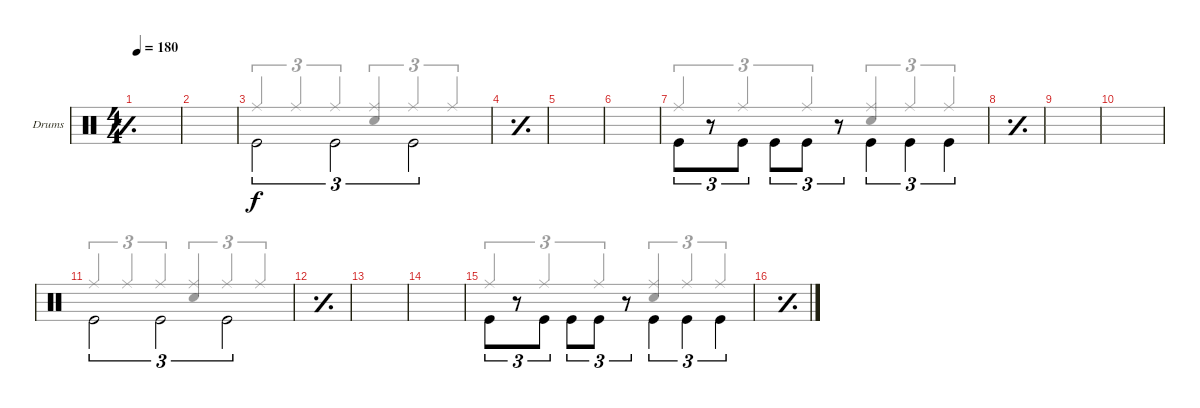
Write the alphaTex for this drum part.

\defaultSystemsLayout 4
\bracketExtendMode groupsimilarinstruments
\multiBarRest
\firstSystemTrackNameOrientation horizontal
\otherSystemsTrackNameOrientation horizontal
\track ("Drumkit" "Drums") {instrument percussion}
\staff {score}
\articulation defaults
\voice
\ts (4 4)
\tempo 180
\clef neutral
\simile simple
\ks c
|
|
\simile none "Kick (hit)".2{tu (3 2) beam invert} "Kick (hit)".2{tu (3 2) beam invert} "Kick (hit)".2{tu (3 2) beam invert}
|
\simile simple
|
|
|
\simile none "Kick (hit)".8{tu (3 2)}
r.8{tu (3 2) beam invert} "Kick (hit)".8{tu (3 2) beam invert} "Kick (hit)".8{tu (3 2)} "Kick (hit)".8{tu (3 2) beam invert} r.8{tu (3 2) beam invert} "Kick (hit)".4{tu (3 2) beam invert} "Kick (hit)".4{tu (3 2) beam invert} "Kick (hit)".4{tu (3 2) beam invert} |
\simile simple
|
|
|
\simile none "Kick (hit)".2{tu (3 2) beam invert} "Kick (hit)".2{tu (3 2) beam invert} "Kick (hit)".2{tu (3 2) beam invert}
|
\simile simple
|
|
|
\simile none "Kick (hit)".8{tu (3 2)}
r.8{tu (3 2) beam invert} "Kick (hit)".8{tu (3 2) beam invert} "Kick (hit)".8{tu (3 2)} "Kick (hit)".8{tu (3 2) beam invert} r.8{tu (3 2) beam invert} "Kick (hit)".4{tu (3 2) beam invert} "Kick (hit)".4{tu (3 2) beam invert} "Kick (hit)".4{tu (3 2) beam invert} |
\simile simple
\voice
\clef neutral
\ottava regular
\simile simple
\ks c
|
|
\simile none "Ride (middle)".4{tu (3 2) beam invert} "Ride (middle)".4{tu (3 2) beam invert} "Ride (middle)".4{tu (3 2) beam invert}
("Ride (middle)" "Snare (hit) 2").4{tu (3 2) beam invert} "Ride (middle)".4{tu (3 2) beam invert} "Ride (middle)".4{tu (3 2) beam invert} |
\simile simple
|
|
|
\simile none "Ride (middle)".4{tu (3 2) beam invert} "Ride (middle)".4{tu (3 2) beam invert} "Ride (middle)".4{tu (3 2) beam invert}
("Snare (hit) 2" "Ride (middle)").4{tu (3 2) beam invert} "Ride (middle)".4{tu (3 2) beam invert} "Ride (middle)".4{tu (3 2) beam invert} |
\simile simple
|
|
|
\simile none "Ride (middle)".4{tu (3 2) beam invert} "Ride (middle)".4{tu (3 2) beam invert} "Ride (middle)".4{tu (3 2) beam invert}
("Ride (middle)" "Snare (hit) 2").4{tu (3 2) beam invert} "Ride (middle)".4{tu (3 2) beam invert} "Ride (middle)".4{tu (3 2) beam invert} |
\simile simple
|
|
|
\simile none "Ride (middle)".4{tu (3 2) beam invert} "Ride (middle)".4{tu (3 2) beam invert} "Ride (middle)".4{tu (3 2) beam invert}
("Snare (hit) 2" "Ride (middle)").4{tu (3 2) beam invert} "Ride (middle)".4{tu (3 2) beam invert} "Ride (middle)".4{tu (3 2) beam invert} |
\simile simple
